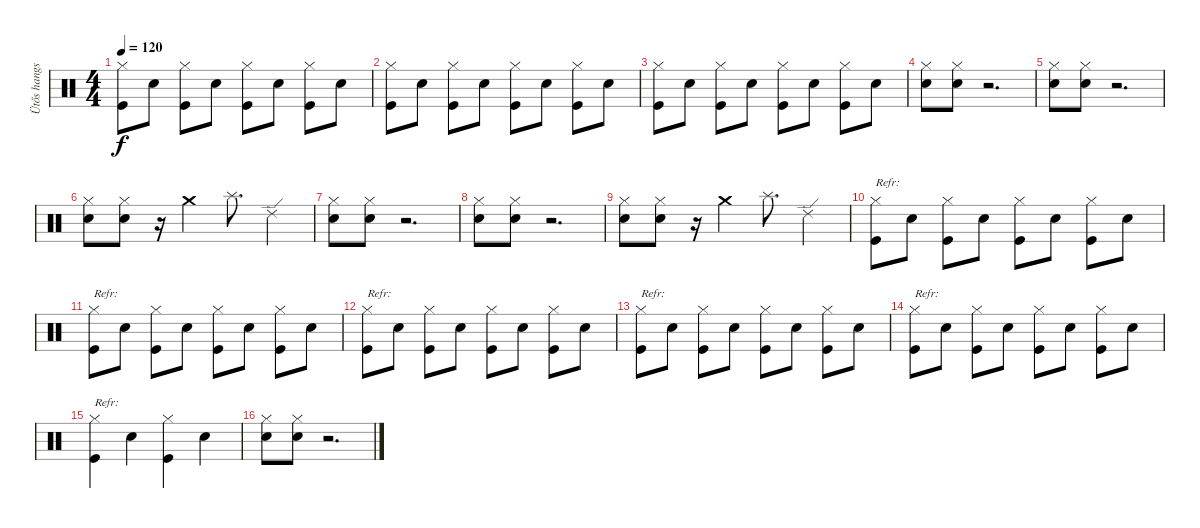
\track ("Ütős hangszer" "Ütős hangs") {instrument percussion}
\staff {score}
\articulation defaults
\ts (4 4)
\tempo 120
\clef neutral
\ks c
("Hi-Hat (closed)" "Kick (hit)").8{dy f} "Snare (hit) 2".8 ("Hi-Hat (closed)" "Kick (hit)").8 "Snare (hit) 2".8 ("Hi-Hat (closed)" "Kick (hit)").8 "Snare (hit) 2".8 ("Hi-Hat (closed)" "Kick (hit)").8 "Snare (hit) 2".8 |
("Hi-Hat (closed)" "Kick (hit)").8 "Snare (hit) 2".8 ("Hi-Hat (closed)" "Kick (hit)").8 "Snare (hit) 2".8 ("Hi-Hat (closed)" "Kick (hit)").8 "Snare (hit) 2".8 ("Hi-Hat (closed)" "Kick (hit)").8 "Snare (hit) 2".8 |
("Hi-Hat (closed)" "Kick (hit)").8 "Snare (hit) 2".8 ("Hi-Hat (closed)" "Kick (hit)").8 "Snare (hit) 2".8 ("Hi-Hat (closed)" "Kick (hit)").8 "Snare (hit) 2".8 ("Hi-Hat (closed)" "Kick (hit)").8 "Snare (hit) 2".8 |
("Hi-Hat (closed)" "Snare (hit) 2").8 ("Hi-Hat (closed)" "Snare (hit) 2").8 r.2{d} |
("Hi-Hat (closed)" "Snare (hit) 2").8 ("Hi-Hat (closed)" "Snare (hit) 2").8 r.2{d} |
("Hi-Hat (closed)" "Snare (hit) 2").8 ("Hi-Hat (closed)" "Snare (hit) 2").8 r.16 "Crash medium (hit)".4 "Splash (hit)".8{d} "Ride (edge) 2".4 |
("Hi-Hat (closed)" "Snare (hit) 2").8 ("Hi-Hat (closed)" "Snare (hit) 2").8 r.2{d} |
("Hi-Hat (closed)" "Snare (hit) 2").8 ("Hi-Hat (closed)" "Snare (hit) 2").8 r.2{d} |
("Hi-Hat (closed)" "Snare (hit) 2").8 ("Hi-Hat (closed)" "Snare (hit) 2").8 r.16 "Crash medium (hit)".4 "Splash (hit)".8{d} "Ride (edge) 2".4 |
("Hi-Hat (closed)" "Kick (hit)").8{txt "Refr:"} "Snare (hit) 2".8 ("Hi-Hat (closed)" "Kick (hit)").8 "Snare (hit) 2".8 ("Hi-Hat (closed)" "Kick (hit)").8 "Snare (hit) 2".8 ("Hi-Hat (closed)" "Kick (hit)").8 "Snare (hit) 2".8 |
("Hi-Hat (closed)" "Kick (hit)").8{txt "Refr:"} "Snare (hit) 2".8 ("Hi-Hat (closed)" "Kick (hit)").8 "Snare (hit) 2".8 ("Hi-Hat (closed)" "Kick (hit)").8 "Snare (hit) 2".8 ("Hi-Hat (closed)" "Kick (hit)").8 "Snare (hit) 2".8 |
("Hi-Hat (closed)" "Kick (hit)").8{txt "Refr:"} "Snare (hit) 2".8 ("Hi-Hat (closed)" "Kick (hit)").8 "Snare (hit) 2".8 ("Hi-Hat (closed)" "Kick (hit)").8 "Snare (hit) 2".8 ("Hi-Hat (closed)" "Kick (hit)").8 "Snare (hit) 2".8 |
("Hi-Hat (closed)" "Kick (hit)").8{txt "Refr:"} "Snare (hit) 2".8 ("Hi-Hat (closed)" "Kick (hit)").8 "Snare (hit) 2".8 ("Hi-Hat (closed)" "Kick (hit)").8 "Snare (hit) 2".8 ("Hi-Hat (closed)" "Kick (hit)").8 "Snare (hit) 2".8 |
("Hi-Hat (closed)" "Kick (hit)").8{txt "Refr:"} "Snare (hit) 2".8 ("Hi-Hat (closed)" "Kick (hit)").8 "Snare (hit) 2".8 ("Hi-Hat (closed)" "Kick (hit)").8 "Snare (hit) 2".8 ("Hi-Hat (closed)" "Kick (hit)").8 "Snare (hit) 2".8 |
("Hi-Hat (closed)" "Kick (hit)").4{txt "Refr:"} "Snare (hit) 2".4 ("Hi-Hat (closed)" "Kick (hit)").4 "Snare (hit) 2".4 |
("Hi-Hat (closed)" "Snare (hit) 2").8 ("Hi-Hat (closed)" "Snare (hit) 2").8 r.2{d}
